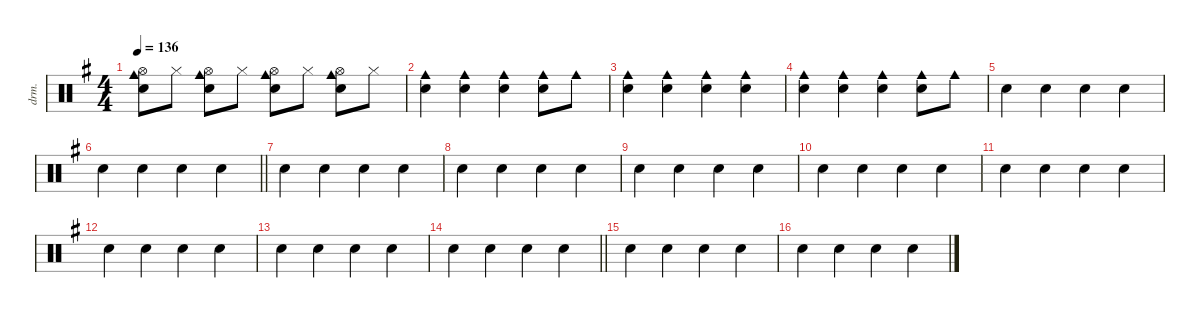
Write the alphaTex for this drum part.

\defaultSystemsLayout 4
\hideDynamics
\bracketExtendMode nobrackets
\otherSystemsTrackNameOrientation horizontal
\track ("Percussions" "drm.") {instrument percussion}
\staff {score}
\articulation defaults
\ts (4 4)
\tempo 136
\clef neutral
\ks g
("Hand Clap (hit)"{acc forcenatural} "Cowbell medium (hit)"{acc forcenatural} "Hi-Hat (open)"{acc forcenatural}).8{dy f beam Down} "Hi-Hat (closed)"{acc forcenatural}.8{beam Down} ("Hand Clap (hit)"{acc forcenatural} "Cowbell medium (hit)"{acc forcenatural} "Hi-Hat (open)"{acc forcenatural}).8{beam Down} "Hi-Hat (closed)"{acc forcenatural}.8{beam Down} ("Hand Clap (hit)"{acc forcenatural} "Cowbell medium (hit)"{acc forcenatural} "Hi-Hat (open)"{acc forcenatural}).8{beam Down} "Hi-Hat (closed)"{acc forcenatural}.8{beam Down} ("Hand Clap (hit)"{acc forcenatural} "Cowbell medium (hit)"{acc forcenatural} "Hi-Hat (open)"{acc forcenatural}).8{beam Down} "Hi-Hat (closed)"{acc forcenatural}.8{beam Down} |
("Hand Clap (hit)"{acc forcenatural} "Cowbell medium (hit)"{acc forcenatural}).4{beam Down} ("Hand Clap (hit)"{acc forcenatural} "Cowbell medium (hit)"{acc forcenatural}).4{beam Down} ("Hand Clap (hit)"{acc forcenatural} "Cowbell medium (hit)"{acc forcenatural}).4{beam Down} ("Hand Clap (hit)"{acc forcenatural} "Cowbell medium (hit)"{acc forcenatural}).8{beam Down} "Cowbell medium (hit)"{acc forcenatural}.8{beam Down} |
("Hand Clap (hit)"{acc forcenatural} "Cowbell medium (hit)"{acc forcenatural}).4{beam Down} ("Hand Clap (hit)"{acc forcenatural} "Cowbell medium (hit)"{acc forcenatural}).4{beam Down} ("Hand Clap (hit)"{acc forcenatural} "Cowbell medium (hit)"{acc forcenatural}).4{beam Down} ("Hand Clap (hit)"{acc forcenatural} "Cowbell medium (hit)"{acc forcenatural}).4{beam Down} |
("Hand Clap (hit)"{acc forcenatural} "Cowbell medium (hit)"{acc forcenatural}).4{beam Down} ("Hand Clap (hit)"{acc forcenatural} "Cowbell medium (hit)"{acc forcenatural}).4{beam Down} ("Hand Clap (hit)"{acc forcenatural} "Cowbell medium (hit)"{acc forcenatural}).4{beam Down} ("Hand Clap (hit)"{acc forcenatural} "Cowbell medium (hit)"{acc forcenatural}).8{beam Down} "Cowbell medium (hit)"{acc forcenatural}.8{beam Down} |
"Hand Clap (hit)"{acc forcenatural}.4{beam Down} "Hand Clap (hit)"{acc forcenatural}.4{beam Down} "Hand Clap (hit)"{acc forcenatural}.4{beam Down} "Hand Clap (hit)"{acc forcenatural}.4{beam Down} |
\barLineRight lightlight "Hand Clap (hit)"{acc forcenatural}.4{beam Down} "Hand Clap (hit)"{acc forcenatural}.4{beam Down} "Hand Clap (hit)"{acc forcenatural}.4{beam Down} "Hand Clap (hit)"{acc forcenatural}.4{beam Down}
|
"Hand Clap (hit)"{acc forcenatural}.4{beam Down} "Hand Clap (hit)"{acc forcenatural}.4{beam Down} "Hand Clap (hit)"{acc forcenatural}.4{beam Down} "Hand Clap (hit)"{acc forcenatural}.4{beam Down} |
"Hand Clap (hit)"{acc forcenatural}.4{beam Down} "Hand Clap (hit)"{acc forcenatural}.4{beam Down} "Hand Clap (hit)"{acc forcenatural}.4{beam Down} "Hand Clap (hit)"{acc forcenatural}.4{beam Down} |
"Hand Clap (hit)"{acc forcenatural}.4{beam Down} "Hand Clap (hit)"{acc forcenatural}.4{beam Down} "Hand Clap (hit)"{acc forcenatural}.4{beam Down} "Hand Clap (hit)"{acc forcenatural}.4{beam Down} |
"Hand Clap (hit)"{acc forcenatural}.4{beam Down} "Hand Clap (hit)"{acc forcenatural}.4{beam Down} "Hand Clap (hit)"{acc forcenatural}.4{beam Down} "Hand Clap (hit)"{acc forcenatural}.4{beam Down} |
"Hand Clap (hit)"{acc forcenatural}.4{beam Down} "Hand Clap (hit)"{acc forcenatural}.4{beam Down} "Hand Clap (hit)"{acc forcenatural}.4{beam Down} "Hand Clap (hit)"{acc forcenatural}.4{beam Down} |
"Hand Clap (hit)"{acc forcenatural}.4{beam Down} "Hand Clap (hit)"{acc forcenatural}.4{beam Down} "Hand Clap (hit)"{acc forcenatural}.4{beam Down} "Hand Clap (hit)"{acc forcenatural}.4{beam Down} |
"Hand Clap (hit)"{acc forcenatural}.4{beam Down} "Hand Clap (hit)"{acc forcenatural}.4{beam Down} "Hand Clap (hit)"{acc forcenatural}.4{beam Down} "Hand Clap (hit)"{acc forcenatural}.4{beam Down} |
\barLineRight lightlight "Hand Clap (hit)"{acc forcenatural}.4{beam Down} "Hand Clap (hit)"{acc forcenatural}.4{beam Down} "Hand Clap (hit)"{acc forcenatural}.4{beam Down} "Hand Clap (hit)"{acc forcenatural}.4{beam Down}
|
"Hand Clap (hit)"{acc forcenatural}.4{beam Down} "Hand Clap (hit)"{acc forcenatural}.4{beam Down} "Hand Clap (hit)"{acc forcenatural}.4{beam Down} "Hand Clap (hit)"{acc forcenatural}.4{beam Down} |
"Hand Clap (hit)"{acc forcenatural}.4{beam Down} "Hand Clap (hit)"{acc forcenatural}.4{beam Down} "Hand Clap (hit)"{acc forcenatural}.4{beam Down} "Hand Clap (hit)"{acc forcenatural}.4{beam Down}
